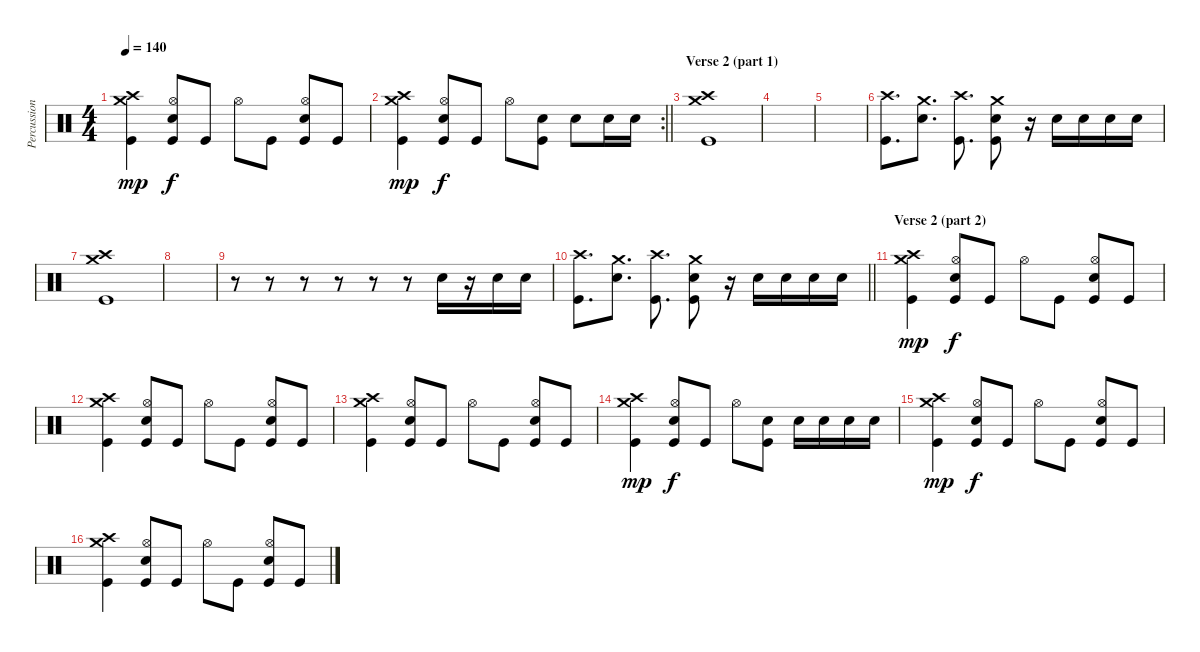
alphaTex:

\track ("Percussion" "Percussion") {instrument percussion}
\staff {score}
\articulation defaults
\ts (4 4)
\tempo 140
\clef neutral
\ks c
("Crash high (hit)" "Crash medium (hit)" "Kick (hit)").4{dy mp} ("Hi-Hat (open)" "Electric Snare (hit)" "Kick (hit)").8{dy f} "Kick (hit)".8 "Hi-Hat (open)".8 "Kick (hit)".8 ("Hi-Hat (open)" "Electric Snare (hit)" "Kick (hit)").8 "Kick (hit)".8 |
\rc 2
\barLineRight lightlight
("Crash high (hit)" "Crash medium (hit)" "Kick (hit)").4{dy mp} ("Hi-Hat (open)" "Electric Snare (hit)" "Kick (hit)").8{dy f} "Kick (hit)".8 "Hi-Hat (open)".8 ("Electric Snare (hit)" "Kick (hit)").8 "Electric Snare (hit)".8 "Electric Snare (hit)".16 "Electric Snare (hit)".16 |
\section ("" "Verse 2 (part 1)")
("Crash high (hit)" "Crash medium (hit)" "Kick (hit)").1 |
|
|
("Crash high (hit)" "Kick (hit)").8{d} ("Crash medium (hit)" "Electric Snare (hit)").8{d} ("Crash high (hit)" "Kick (hit)").8{d} ("Crash medium (hit)" "Electric Snare (hit)" "Kick (hit)").8 r.16 "Electric Snare (hit)".16 "Electric Snare (hit)".16 "Electric Snare (hit)".16 "Electric Snare (hit)".16 |
("Crash high (hit)" "Crash medium (hit)" "Kick (hit)").1 |
|
r.8 r.8 r.8 r.8 r.8 r.8 "Electric Snare (hit)".16 r.16 "Electric Snare (hit)".16 "Electric Snare (hit)".16 |
\barLineRight lightlight
("Crash high (hit)" "Kick (hit)").8{d} ("Crash medium (hit)" "Electric Snare (hit)").8{d} ("Crash high (hit)" "Kick (hit)").8{d} ("Crash medium (hit)" "Electric Snare (hit)" "Kick (hit)").8 r.16 "Electric Snare (hit)".16 "Electric Snare (hit)".16 "Electric Snare (hit)".16 "Electric Snare (hit)".16 |
\section ("" "Verse 2 (part 2)")
("Crash high (hit)" "Crash medium (hit)" "Kick (hit)").4{dy mp} ("Hi-Hat (open)" "Electric Snare (hit)" "Kick (hit)").8{dy f} "Kick (hit)".8 "Hi-Hat (open)".8 "Kick (hit)".8 ("Hi-Hat (open)" "Electric Snare (hit)" "Kick (hit)").8 "Kick (hit)".8 |
("Crash high (hit)" "Crash medium (hit)" "Kick (hit)").4 ("Hi-Hat (open)" "Electric Snare (hit)" "Kick (hit)").8 "Kick (hit)".8 "Hi-Hat (open)".8 "Kick (hit)".8 ("Hi-Hat (open)" "Electric Snare (hit)" "Kick (hit)").8 "Kick (hit)".8 |
("Crash high (hit)" "Crash medium (hit)" "Kick (hit)").4 ("Hi-Hat (open)" "Electric Snare (hit)" "Kick (hit)").8 "Kick (hit)".8 "Hi-Hat (open)".8 "Kick (hit)".8 ("Hi-Hat (open)" "Electric Snare (hit)" "Kick (hit)").8 "Kick (hit)".8 |
("Crash high (hit)" "Crash medium (hit)" "Kick (hit)").4{dy mp} ("Hi-Hat (open)" "Electric Snare (hit)" "Kick (hit)").8{dy f} "Kick (hit)".8 "Hi-Hat (open)".8 ("Electric Snare (hit)" "Kick (hit)").8 "Electric Snare (hit)".16 "Electric Snare (hit)".16 "Electric Snare (hit)".16 "Electric Snare (hit)".16 |
("Crash high (hit)" "Crash medium (hit)" "Kick (hit)").4{dy mp} ("Hi-Hat (open)" "Electric Snare (hit)" "Kick (hit)").8{dy f} "Kick (hit)".8 "Hi-Hat (open)".8 "Kick (hit)".8 ("Hi-Hat (open)" "Electric Snare (hit)" "Kick (hit)").8 "Kick (hit)".8 |
("Crash high (hit)" "Crash medium (hit)" "Kick (hit)").4 ("Hi-Hat (open)" "Electric Snare (hit)" "Kick (hit)").8 "Kick (hit)".8 "Hi-Hat (open)".8 "Kick (hit)".8 ("Hi-Hat (open)" "Electric Snare (hit)" "Kick (hit)").8 "Kick (hit)".8
